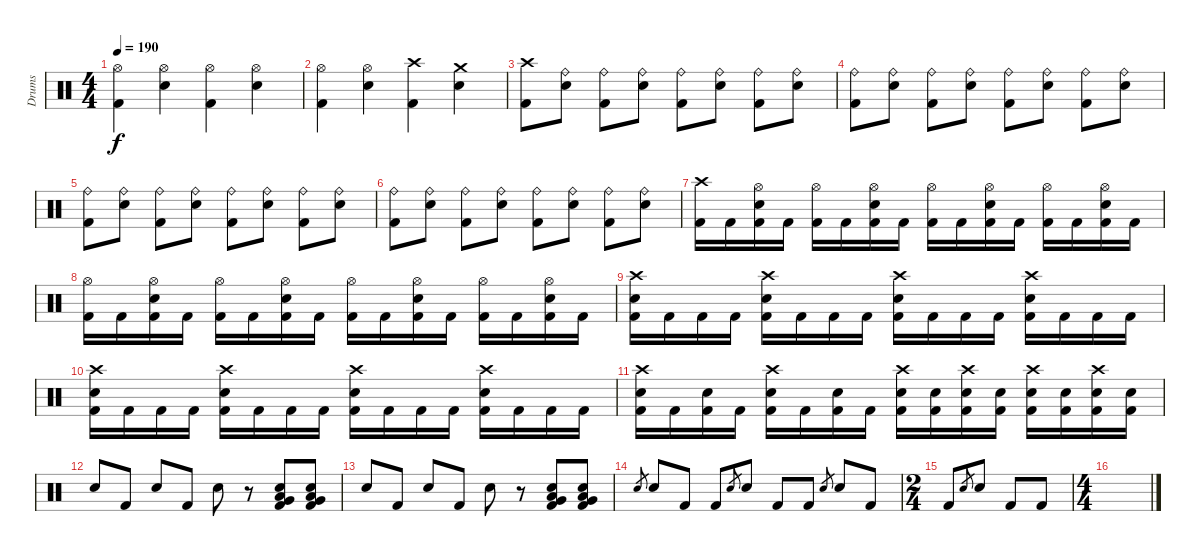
\track ("Drums" "Drums") {instrument percussion}
\staff {score}
\articulation defaults
\ts (4 4)
\tempo 190
\clef neutral
\ks c
("Hi-Hat (open)" "Kick (hit) 2").4{dy f} ("Hi-Hat (open)" "Snare (hit) 2").4 ("Hi-Hat (open)" "Kick (hit) 2").4 ("Hi-Hat (open)" "Snare (hit) 2").4 |
("Hi-Hat (open)" "Kick (hit) 2").4 ("Hi-Hat (open)" "Snare (hit) 2").4 ("Crash high (hit)" "Kick (hit) 2").4 ("Crash medium (hit)" "Snare (hit) 2").4 |
("Crash high (hit)" "Kick (hit) 2").8 ("Ride (bell)" "Snare (hit) 2").8 ("Ride (bell)" "Kick (hit) 2").8 ("Ride (bell)" "Snare (hit) 2").8 ("Ride (bell)" "Kick (hit) 2").8 ("Ride (bell)" "Snare (hit) 2").8 ("Ride (bell)" "Kick (hit) 2").8 ("Ride (bell)" "Snare (hit) 2").8 |
("Ride (bell)" "Kick (hit) 2").8 ("Ride (bell)" "Snare (hit) 2").8 ("Ride (bell)" "Kick (hit) 2").8 ("Ride (bell)" "Snare (hit) 2").8 ("Ride (bell)" "Kick (hit) 2").8 ("Ride (bell)" "Snare (hit) 2").8 ("Ride (bell)" "Kick (hit) 2").8 ("Ride (bell)" "Snare (hit) 2").8 |
("Ride (bell)" "Kick (hit) 2").8 ("Ride (bell)" "Snare (hit) 2").8 ("Ride (bell)" "Kick (hit) 2").8 ("Ride (bell)" "Snare (hit) 2").8 ("Ride (bell)" "Kick (hit) 2").8 ("Ride (bell)" "Snare (hit) 2").8 ("Ride (bell)" "Kick (hit) 2").8 ("Ride (bell)" "Snare (hit) 2").8 |
("Ride (bell)" "Kick (hit) 2").8 ("Ride (bell)" "Snare (hit) 2").8 ("Ride (bell)" "Kick (hit) 2").8 ("Ride (bell)" "Snare (hit) 2").8 ("Ride (bell)" "Kick (hit) 2").8 ("Ride (bell)" "Snare (hit) 2").8 ("Ride (bell)" "Kick (hit) 2").8 ("Ride (bell)" "Snare (hit) 2").8 |
("Crash high (hit)" "Kick (hit) 2").16 "Kick (hit) 2".16 ("Hi-Hat (open)" "Snare (hit) 2" "Kick (hit) 2").16 "Kick (hit) 2".16 ("Hi-Hat (open)" "Kick (hit) 2").16 "Kick (hit) 2".16 ("Hi-Hat (open)" "Snare (hit) 2" "Kick (hit) 2").16 "Kick (hit) 2".16 ("Hi-Hat (open)" "Kick (hit) 2").16 "Kick (hit) 2".16 ("Hi-Hat (open)" "Snare (hit) 2" "Kick (hit) 2").16 "Kick (hit) 2".16 ("Hi-Hat (open)" "Kick (hit) 2").16 "Kick (hit) 2".16 ("Hi-Hat (open)" "Snare (hit) 2" "Kick (hit) 2").16 "Kick (hit) 2".16 |
("Hi-Hat (open)" "Kick (hit) 2").16 "Kick (hit) 2".16 ("Hi-Hat (open)" "Snare (hit) 2" "Kick (hit) 2").16 "Kick (hit) 2".16 ("Hi-Hat (open)" "Kick (hit) 2").16 "Kick (hit) 2".16 ("Hi-Hat (open)" "Snare (hit) 2" "Kick (hit) 2").16 "Kick (hit) 2".16 ("Hi-Hat (open)" "Kick (hit) 2").16 "Kick (hit) 2".16 ("Hi-Hat (open)" "Snare (hit) 2" "Kick (hit) 2").16 "Kick (hit) 2".16 ("Hi-Hat (open)" "Kick (hit) 2").16 "Kick (hit) 2".16 ("Hi-Hat (open)" "Snare (hit) 2" "Kick (hit) 2").16 "Kick (hit) 2".16 |
("Crash high (hit)" "Snare (hit) 2" "Kick (hit) 2").16 "Kick (hit) 2".16 "Kick (hit) 2".16 "Kick (hit) 2".16 ("Crash high (hit)" "Snare (hit) 2" "Kick (hit) 2").16 "Kick (hit) 2".16 "Kick (hit) 2".16 "Kick (hit) 2".16 ("Crash high (hit)" "Snare (hit) 2" "Kick (hit) 2").16 "Kick (hit) 2".16 "Kick (hit) 2".16 "Kick (hit) 2".16 ("Crash high (hit)" "Snare (hit) 2" "Kick (hit) 2").16 "Kick (hit) 2".16 "Kick (hit) 2".16 "Kick (hit) 2".16 |
("Crash high (hit)" "Snare (hit) 2" "Kick (hit) 2").16 "Kick (hit) 2".16 "Kick (hit) 2".16 "Kick (hit) 2".16 ("Crash high (hit)" "Snare (hit) 2" "Kick (hit) 2").16 "Kick (hit) 2".16 "Kick (hit) 2".16 "Kick (hit) 2".16 ("Crash high (hit)" "Snare (hit) 2" "Kick (hit) 2").16 "Kick (hit) 2".16 "Kick (hit) 2".16 "Kick (hit) 2".16 ("Crash high (hit)" "Snare (hit) 2" "Kick (hit) 2").16 "Kick (hit) 2".16 "Kick (hit) 2".16 "Kick (hit) 2".16 |
("Crash high (hit)" "Snare (hit) 2" "Kick (hit) 2").16 "Kick (hit) 2".16 ("Snare (hit) 2" "Kick (hit) 2").16 "Kick (hit) 2".16 ("Crash high (hit)" "Snare (hit) 2" "Kick (hit) 2").16 "Kick (hit) 2".16 ("Snare (hit) 2" "Kick (hit) 2").16 "Kick (hit) 2".16 ("Crash high (hit)" "Snare (hit) 2" "Kick (hit) 2").16 ("Snare (hit) 2" "Kick (hit) 2").16 ("Crash high (hit)" "Snare (hit) 2" "Kick (hit) 2").16 ("Snare (hit) 2" "Kick (hit) 2").16 ("Crash high (hit)" "Snare (hit) 2" "Kick (hit) 2").16 ("Snare (hit) 2" "Kick (hit) 2").16 ("Crash high (hit)" "Snare (hit) 2" "Kick (hit) 2").16 ("Snare (hit) 2" "Kick (hit) 2").16 |
"Snare (hit) 2".8 "Kick (hit) 2".8 "Snare (hit) 2".8 "Kick (hit) 2".8 "Snare (hit) 2".8 r.8 ("Very Low Tom (hit)" "Low Floor Tom (hit)" "Snare (hit) 2" "Kick (hit) 2").8 ("Very Low Tom (hit)" "Low Floor Tom (hit)" "Snare (hit) 2" "Kick (hit) 2").8 |
"Snare (hit) 2".8 "Kick (hit) 2".8 "Snare (hit) 2".8 "Kick (hit) 2".8 "Snare (hit) 2".8 r.8 ("Very Low Tom (hit)" "Low Floor Tom (hit)" "Snare (hit) 2" "Kick (hit) 2").8 ("Very Low Tom (hit)" "Low Floor Tom (hit)" "Snare (hit) 2" "Kick (hit) 2").8 |
"Snare (hit) 2".8{gr} "Snare (hit) 2".8 "Kick (hit) 2".8 "Kick (hit) 2".8 "Snare (hit) 2".8{gr} "Snare (hit) 2".8 "Kick (hit) 2".8 "Kick (hit) 2".8 "Snare (hit) 2".8{gr} "Snare (hit) 2".8 "Kick (hit) 2".8 |
\ts (2 4)
"Kick (hit) 2".8 "Snare (hit) 2".8{gr} "Snare (hit) 2".8 "Kick (hit) 2".8 "Kick (hit) 2".8 |
\ts (4 4)
